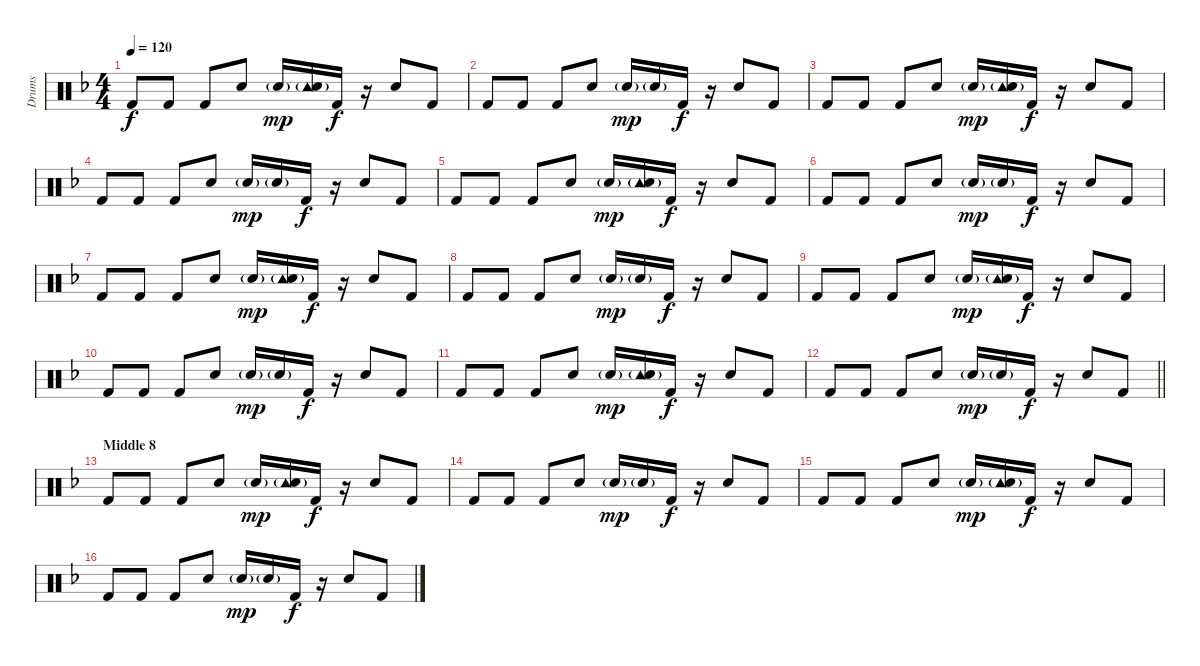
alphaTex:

\track ("Drums" "Drums") {instrument percussion}
\staff {score}
\articulation defaults
\ts (4 4)
\tempo 120
\clef neutral
\ks f "Kick (hit) 2".8{dy f} "Kick (hit) 2".8 "Kick (hit) 2".8 "Snare (hit) 2".8 "Snare (hit) 2"{g}.16{dy mp}
("Tambourine (hit)" "Snare (hit) 2"{g}).16 "Kick (hit) 2".16{dy f} r.16 "Snare (hit) 2".8 "Kick (hit) 2".8 |
"Kick (hit) 2".8 "Kick (hit) 2".8 "Kick (hit) 2".8 "Snare (hit) 2".8 "Snare (hit) 2"{g}.16{dy mp} "Snare (hit) 2"{g}.16 "Kick (hit) 2".16{dy f} r.16 "Snare (hit) 2".8 "Kick (hit) 2".8 |
"Kick (hit) 2".8 "Kick (hit) 2".8 "Kick (hit) 2".8 "Snare (hit) 2".8 "Snare (hit) 2"{g}.16{dy mp} ("Tambourine (hit)" "Snare (hit) 2"{g}).16 "Kick (hit) 2".16{dy f} r.16 "Snare (hit) 2".8 "Kick (hit) 2".8 |
"Kick (hit) 2".8 "Kick (hit) 2".8 "Kick (hit) 2".8 "Snare (hit) 2".8 "Snare (hit) 2"{g}.16{dy mp} "Snare (hit) 2"{g}.16 "Kick (hit) 2".16{dy f} r.16 "Snare (hit) 2".8 "Kick (hit) 2".8 |
"Kick (hit) 2".8 "Kick (hit) 2".8 "Kick (hit) 2".8 "Snare (hit) 2".8 "Snare (hit) 2"{g}.16{dy mp} ("Tambourine (hit)" "Snare (hit) 2"{g}).16 "Kick (hit) 2".16{dy f} r.16 "Snare (hit) 2".8 "Kick (hit) 2".8 |
"Kick (hit) 2".8 "Kick (hit) 2".8 "Kick (hit) 2".8 "Snare (hit) 2".8 "Snare (hit) 2"{g}.16{dy mp} "Snare (hit) 2"{g}.16 "Kick (hit) 2".16{dy f} r.16 "Snare (hit) 2".8 "Kick (hit) 2".8 |
"Kick (hit) 2".8 "Kick (hit) 2".8 "Kick (hit) 2".8 "Snare (hit) 2".8 "Snare (hit) 2"{g}.16{dy mp} ("Tambourine (hit)" "Snare (hit) 2"{g}).16 "Kick (hit) 2".16{dy f} r.16 "Snare (hit) 2".8 "Kick (hit) 2".8 |
"Kick (hit) 2".8 "Kick (hit) 2".8 "Kick (hit) 2".8 "Snare (hit) 2".8 "Snare (hit) 2"{g}.16{dy mp} "Snare (hit) 2"{g}.16 "Kick (hit) 2".16{dy f} r.16 "Snare (hit) 2".8 "Kick (hit) 2".8 |
"Kick (hit) 2".8 "Kick (hit) 2".8 "Kick (hit) 2".8 "Snare (hit) 2".8 "Snare (hit) 2"{g}.16{dy mp} ("Tambourine (hit)" "Snare (hit) 2"{g}).16 "Kick (hit) 2".16{dy f} r.16 "Snare (hit) 2".8 "Kick (hit) 2".8 |
"Kick (hit) 2".8 "Kick (hit) 2".8 "Kick (hit) 2".8 "Snare (hit) 2".8 "Snare (hit) 2"{g}.16{dy mp} "Snare (hit) 2"{g}.16 "Kick (hit) 2".16{dy f} r.16 "Snare (hit) 2".8 "Kick (hit) 2".8 |
"Kick (hit) 2".8 "Kick (hit) 2".8 "Kick (hit) 2".8 "Snare (hit) 2".8 "Snare (hit) 2"{g}.16{dy mp} ("Tambourine (hit)" "Snare (hit) 2"{g}).16 "Kick (hit) 2".16{dy f} r.16 "Snare (hit) 2".8 "Kick (hit) 2".8 |
\barLineRight lightlight "Kick (hit) 2".8 "Kick (hit) 2".8 "Kick (hit) 2".8 "Snare (hit) 2".8 "Snare (hit) 2"{g}.16{dy mp} "Snare (hit) 2"{g}.16 "Kick (hit) 2".16{dy f}
r.16 "Snare (hit) 2".8 "Kick (hit) 2".8 |
\section ("" "Middle 8")
"Kick (hit) 2".8 "Kick (hit) 2".8 "Kick (hit) 2".8 "Snare (hit) 2".8 "Snare (hit) 2"{g}.16{dy mp} ("Tambourine (hit)" "Snare (hit) 2"{g}).16 "Kick (hit) 2".16{dy f} r.16 "Snare (hit) 2".8 "Kick (hit) 2".8 |
"Kick (hit) 2".8 "Kick (hit) 2".8 "Kick (hit) 2".8 "Snare (hit) 2".8 "Snare (hit) 2"{g}.16{dy mp} "Snare (hit) 2"{g}.16 "Kick (hit) 2".16{dy f} r.16 "Snare (hit) 2".8 "Kick (hit) 2".8 |
"Kick (hit) 2".8 "Kick (hit) 2".8 "Kick (hit) 2".8 "Snare (hit) 2".8 "Snare (hit) 2"{g}.16{dy mp} ("Tambourine (hit)" "Snare (hit) 2"{g}).16 "Kick (hit) 2".16{dy f} r.16 "Snare (hit) 2".8 "Kick (hit) 2".8 |
"Kick (hit) 2".8 "Kick (hit) 2".8 "Kick (hit) 2".8 "Snare (hit) 2".8 "Snare (hit) 2"{g}.16{dy mp} "Snare (hit) 2"{g}.16 "Kick (hit) 2".16{dy f} r.16 "Snare (hit) 2".8 "Kick (hit) 2".8
